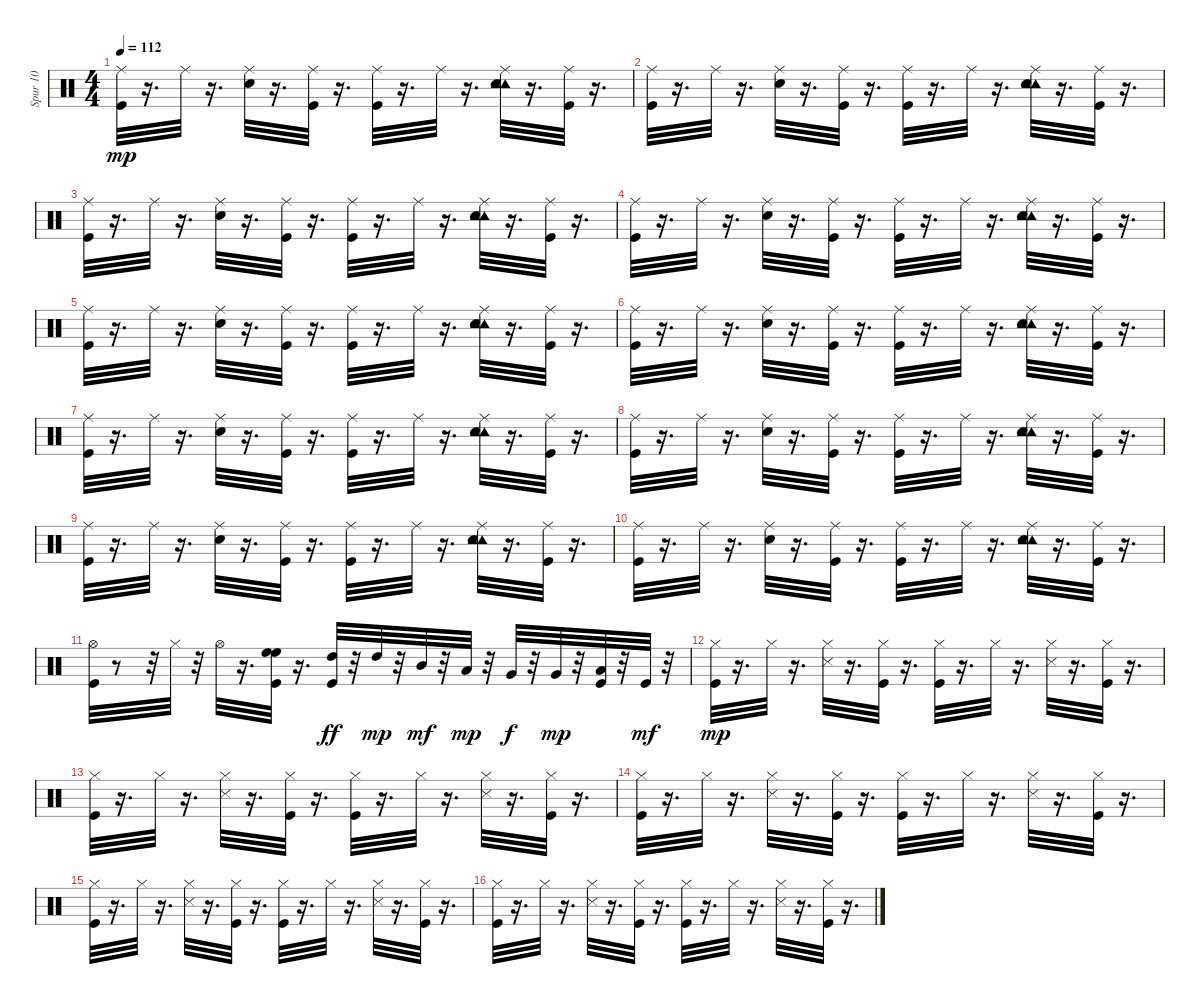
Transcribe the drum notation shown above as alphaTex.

\track ("Spur 10" "Spur 10") {instrument percussion}
\staff {score}
\articulation defaults
\ts (4 4)
\tempo 112
\clef neutral
\ks c
("Kick (hit)" "Ride (middle)").32{dy mp} r.16{d} "Ride (middle)".32 r.16{d} ("Snare (hit) 2" "Ride (middle)").32 r.16{d} ("Kick (hit)" "Ride (middle)").32 r.16{d} ("Kick (hit)" "Ride (middle)").32 r.16{d} "Ride (middle)".32 r.16{d} ("Tambourine (hit)" "Snare (hit) 2" "Tambourine (hit)" "Ride (middle)").32 r.16{d} ("Kick (hit)" "Ride (middle)").32 r.16{d} |
("Kick (hit)" "Ride (middle)").32 r.16{d} "Ride (middle)".32 r.16{d} ("Snare (hit) 2" "Ride (middle)").32 r.16{d} ("Kick (hit)" "Ride (middle)").32 r.16{d} ("Kick (hit)" "Ride (middle)").32 r.16{d} "Ride (middle)".32 r.16{d} ("Tambourine (hit)" "Snare (hit) 2" "Tambourine (hit)" "Ride (middle)").32 r.16{d} ("Kick (hit)" "Ride (middle)").32 r.16{d} |
("Kick (hit)" "Ride (middle)").32 r.16{d} "Ride (middle)".32 r.16{d} ("Snare (hit) 2" "Ride (middle)").32 r.16{d} ("Kick (hit)" "Ride (middle)").32 r.16{d} ("Kick (hit)" "Ride (middle)").32 r.16{d} "Ride (middle)".32 r.16{d} ("Tambourine (hit)" "Snare (hit) 2" "Tambourine (hit)" "Ride (middle)").32 r.16{d} ("Kick (hit)" "Ride (middle)").32 r.16{d} |
("Kick (hit)" "Ride (middle)").32 r.16{d} "Ride (middle)".32 r.16{d} ("Snare (hit) 2" "Ride (middle)").32 r.16{d} ("Kick (hit)" "Ride (middle)").32 r.16{d} ("Kick (hit)" "Ride (middle)").32 r.16{d} "Ride (middle)".32 r.16{d} ("Tambourine (hit)" "Snare (hit) 2" "Tambourine (hit)" "Ride (middle)").32 r.16{d} ("Kick (hit)" "Ride (middle)").32 r.16{d} |
("Kick (hit)" "Ride (middle)").32 r.16{d} "Ride (middle)".32 r.16{d} ("Snare (hit) 2" "Ride (middle)").32 r.16{d} ("Kick (hit)" "Ride (middle)").32 r.16{d} ("Kick (hit)" "Ride (middle)").32 r.16{d} "Ride (middle)".32 r.16{d} ("Tambourine (hit)" "Snare (hit) 2" "Tambourine (hit)" "Ride (middle)").32 r.16{d} ("Kick (hit)" "Ride (middle)").32 r.16{d} |
("Kick (hit)" "Ride (middle)").32 r.16{d} "Ride (middle)".32 r.16{d} ("Snare (hit) 2" "Ride (middle)").32 r.16{d} ("Kick (hit)" "Ride (middle)").32 r.16{d} ("Kick (hit)" "Ride (middle)").32 r.16{d} "Ride (middle)".32 r.16{d} ("Tambourine (hit)" "Snare (hit) 2" "Tambourine (hit)" "Ride (middle)").32 r.16{d} ("Kick (hit)" "Ride (middle)").32 r.16{d} |
("Kick (hit)" "Ride (middle)").32 r.16{d} "Ride (middle)".32 r.16{d} ("Snare (hit) 2" "Ride (middle)").32 r.16{d} ("Kick (hit)" "Ride (middle)").32 r.16{d} ("Kick (hit)" "Ride (middle)").32 r.16{d} "Ride (middle)".32 r.16{d} ("Tambourine (hit)" "Snare (hit) 2" "Tambourine (hit)" "Ride (middle)").32 r.16{d} ("Kick (hit)" "Ride (middle)").32 r.16{d} |
("Kick (hit)" "Ride (middle)").32 r.16{d} "Ride (middle)".32 r.16{d} ("Snare (hit) 2" "Ride (middle)").32 r.16{d} ("Kick (hit)" "Ride (middle)").32 r.16{d} ("Kick (hit)" "Ride (middle)").32 r.16{d} "Ride (middle)".32 r.16{d} ("Tambourine (hit)" "Snare (hit) 2" "Tambourine (hit)" "Ride (middle)").32 r.16{d} ("Kick (hit)" "Ride (middle)").32 r.16{d} |
("Kick (hit)" "Ride (middle)").32 r.16{d} "Ride (middle)".32 r.16{d} ("Snare (hit) 2" "Ride (middle)").32 r.16{d} ("Kick (hit)" "Ride (middle)").32 r.16{d} ("Kick (hit)" "Ride (middle)").32 r.16{d} "Ride (middle)".32 r.16{d} ("Tambourine (hit)" "Snare (hit) 2" "Tambourine (hit)" "Ride (middle)").32 r.16{d} ("Kick (hit)" "Ride (middle)").32 r.16{d} |
("Kick (hit)" "Ride (middle)").32 r.16{d} "Ride (middle)".32 r.16{d} ("Snare (hit) 2" "Ride (middle)").32 r.16{d} ("Kick (hit)" "Ride (middle)").32 r.16{d} ("Kick (hit)" "Ride (middle)").32 r.16{d} "Ride (middle)".32 r.16{d} ("Tambourine (hit)" "Snare (hit) 2" "Tambourine (hit)" "Ride (middle)").32 r.16{d} ("Kick (hit)" "Ride (middle)").32 r.16{d} |
("Kick (hit)" "Hi-Hat (open)").32 r.8 r.32 "Hi-Hat (closed)".32 r.32 "Hi-Hat (open)".32 r.16{d} ("Kick (hit)" "High Floor Tom (hit)" "High Floor Tom (hit)").32 r.16{d} ("Kick (hit)" "High Tom (hit)").32{dy ff} r.32 "High Tom (hit)".32{dy mp} r.32 "Mid Tom (hit)".32{dy mf} r.32 "Low Tom (hit)".32{dy mp} r.32 "Very Low Tom (hit)".32{dy f} r.32 "Very Low Tom (hit)".32{dy mp} r.32 ("Kick (hit)" "Low Floor Tom (hit)").32 r.32 "Kick (hit)".32{dy mf} r.32 |
("Kick (hit)" "Hi-Hat (closed)").32{dy mp} r.16{d} "Hi-Hat (closed)".32 r.16{d} ("Snare (side stick) 3" "Hi-Hat (closed)").32 r.16{d} ("Kick (hit)" "Hi-Hat (closed)").32 r.16{d} ("Kick (hit)" "Hi-Hat (closed)").32 r.16{d} "Hi-Hat (closed)".32 r.16{d} ("Snare (side stick) 3" "Hi-Hat (closed)").32 r.16{d} ("Kick (hit)" "Hi-Hat (closed)").32 r.16{d} |
("Kick (hit)" "Hi-Hat (closed)").32 r.16{d} "Hi-Hat (closed)".32 r.16{d} ("Snare (side stick) 3" "Hi-Hat (closed)").32 r.16{d} ("Kick (hit)" "Hi-Hat (closed)").32 r.16{d} ("Kick (hit)" "Hi-Hat (closed)").32 r.16{d} "Hi-Hat (closed)".32 r.16{d} ("Snare (side stick) 3" "Hi-Hat (closed)").32 r.16{d} ("Kick (hit)" "Hi-Hat (closed)").32 r.16{d} |
("Kick (hit)" "Hi-Hat (closed)").32 r.16{d} "Hi-Hat (closed)".32 r.16{d} ("Snare (side stick) 3" "Hi-Hat (closed)").32 r.16{d} ("Kick (hit)" "Hi-Hat (closed)").32 r.16{d} ("Kick (hit)" "Hi-Hat (closed)").32 r.16{d} "Hi-Hat (closed)".32 r.16{d} ("Snare (side stick) 3" "Hi-Hat (closed)").32 r.16{d} ("Kick (hit)" "Hi-Hat (closed)").32 r.16{d} |
("Kick (hit)" "Hi-Hat (closed)").32 r.16{d} "Hi-Hat (closed)".32 r.16{d} ("Snare (side stick) 3" "Hi-Hat (closed)").32 r.16{d} ("Kick (hit)" "Hi-Hat (closed)").32 r.16{d} ("Kick (hit)" "Hi-Hat (closed)").32 r.16{d} "Hi-Hat (closed)".32 r.16{d} ("Snare (side stick) 3" "Hi-Hat (closed)").32 r.16{d} ("Kick (hit)" "Hi-Hat (closed)").32 r.16{d} |
("Kick (hit)" "Hi-Hat (closed)").32 r.16{d} "Hi-Hat (closed)".32 r.16{d} ("Snare (side stick) 3" "Hi-Hat (closed)").32 r.16{d} ("Kick (hit)" "Hi-Hat (closed)").32 r.16{d} ("Kick (hit)" "Hi-Hat (closed)").32 r.16{d} "Hi-Hat (closed)".32 r.16{d} ("Snare (side stick) 3" "Hi-Hat (closed)").32 r.16{d} ("Kick (hit)" "Hi-Hat (closed)").32 r.16{d}
